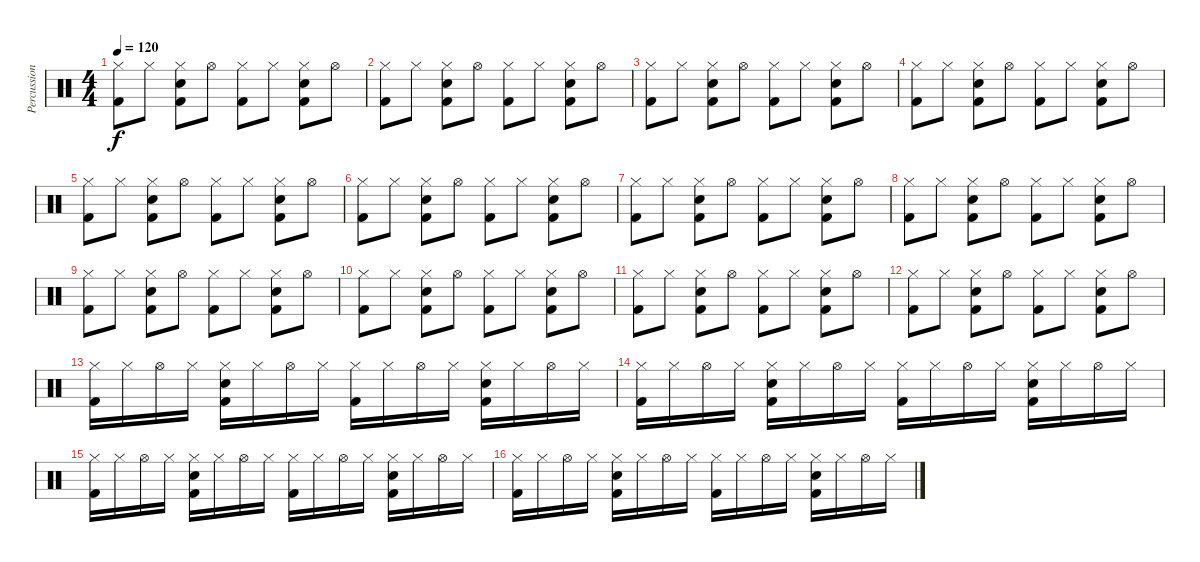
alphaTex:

\track ("Percussion" "Percussion") {instrument percussion}
\staff {score}
\articulation defaults
\ts (4 4)
\tempo 120
\clef neutral
\ks c
("Hi-Hat (closed)" "Kick (hit) 2").8{dy f} "Hi-Hat (closed)".8 ("Hi-Hat (closed)" "Snare (hit) 2" "Kick (hit) 2").8 "Hi-Hat (open)".8 ("Hi-Hat (closed)" "Kick (hit) 2").8 "Hi-Hat (closed)".8 ("Hi-Hat (closed)" "Snare (hit) 2" "Kick (hit) 2").8 "Hi-Hat (open)".8 |
("Hi-Hat (closed)" "Kick (hit) 2").8 "Hi-Hat (closed)".8 ("Hi-Hat (closed)" "Snare (hit) 2" "Kick (hit) 2").8 "Hi-Hat (open)".8 ("Hi-Hat (closed)" "Kick (hit) 2").8 "Hi-Hat (closed)".8 ("Hi-Hat (closed)" "Snare (hit) 2" "Kick (hit) 2").8 "Hi-Hat (open)".8 |
("Hi-Hat (closed)" "Kick (hit) 2").8 "Hi-Hat (closed)".8 ("Hi-Hat (closed)" "Snare (hit) 2" "Kick (hit) 2").8 "Hi-Hat (open)".8 ("Hi-Hat (closed)" "Kick (hit) 2").8 "Hi-Hat (closed)".8 ("Hi-Hat (closed)" "Snare (hit) 2" "Kick (hit) 2").8 "Hi-Hat (open)".8 |
("Hi-Hat (closed)" "Kick (hit) 2").8 "Hi-Hat (closed)".8 ("Hi-Hat (closed)" "Snare (hit) 2" "Kick (hit) 2").8 "Hi-Hat (open)".8 ("Hi-Hat (closed)" "Kick (hit) 2").8 "Hi-Hat (closed)".8 ("Hi-Hat (closed)" "Snare (hit) 2" "Kick (hit) 2").8 "Hi-Hat (open)".8 |
("Hi-Hat (closed)" "Kick (hit) 2").8 "Hi-Hat (closed)".8 ("Hi-Hat (closed)" "Snare (hit) 2" "Kick (hit) 2").8 "Hi-Hat (open)".8 ("Hi-Hat (closed)" "Kick (hit) 2").8 "Hi-Hat (closed)".8 ("Hi-Hat (closed)" "Snare (hit) 2" "Kick (hit) 2").8 "Hi-Hat (open)".8 |
("Hi-Hat (closed)" "Kick (hit) 2").8 "Hi-Hat (closed)".8 ("Hi-Hat (closed)" "Snare (hit) 2" "Kick (hit) 2").8 "Hi-Hat (open)".8 ("Hi-Hat (closed)" "Kick (hit) 2").8 "Hi-Hat (closed)".8 ("Hi-Hat (closed)" "Snare (hit) 2" "Kick (hit) 2").8 "Hi-Hat (open)".8 |
("Hi-Hat (closed)" "Kick (hit) 2").8 "Hi-Hat (closed)".8 ("Hi-Hat (closed)" "Snare (hit) 2" "Kick (hit) 2").8 "Hi-Hat (open)".8 ("Hi-Hat (closed)" "Kick (hit) 2").8 "Hi-Hat (closed)".8 ("Hi-Hat (closed)" "Snare (hit) 2" "Kick (hit) 2").8 "Hi-Hat (open)".8 |
("Hi-Hat (closed)" "Kick (hit) 2").8 "Hi-Hat (closed)".8 ("Hi-Hat (closed)" "Snare (hit) 2" "Kick (hit) 2").8 "Hi-Hat (open)".8 ("Hi-Hat (closed)" "Kick (hit) 2").8 "Hi-Hat (closed)".8 ("Hi-Hat (closed)" "Snare (hit) 2" "Kick (hit) 2").8 "Hi-Hat (open)".8 |
("Hi-Hat (closed)" "Kick (hit) 2").8 "Hi-Hat (closed)".8 ("Hi-Hat (closed)" "Snare (hit) 2" "Kick (hit) 2").8 "Hi-Hat (open)".8 ("Hi-Hat (closed)" "Kick (hit) 2").8 "Hi-Hat (closed)".8 ("Hi-Hat (closed)" "Snare (hit) 2" "Kick (hit) 2").8 "Hi-Hat (open)".8 |
("Hi-Hat (closed)" "Kick (hit) 2").8 "Hi-Hat (closed)".8 ("Hi-Hat (closed)" "Snare (hit) 2" "Kick (hit) 2").8 "Hi-Hat (open)".8 ("Hi-Hat (closed)" "Kick (hit) 2").8 "Hi-Hat (closed)".8 ("Hi-Hat (closed)" "Snare (hit) 2" "Kick (hit) 2").8 "Hi-Hat (open)".8 |
("Hi-Hat (closed)" "Kick (hit) 2").8 "Hi-Hat (closed)".8 ("Hi-Hat (closed)" "Snare (hit) 2" "Kick (hit) 2").8 "Hi-Hat (open)".8 ("Hi-Hat (closed)" "Kick (hit) 2").8 "Hi-Hat (closed)".8 ("Hi-Hat (closed)" "Snare (hit) 2" "Kick (hit) 2").8 "Hi-Hat (open)".8 |
("Hi-Hat (closed)" "Kick (hit) 2").8 "Hi-Hat (closed)".8 ("Hi-Hat (closed)" "Snare (hit) 2" "Kick (hit) 2").8 "Hi-Hat (open)".8 ("Hi-Hat (closed)" "Kick (hit) 2").8 "Hi-Hat (closed)".8 ("Hi-Hat (closed)" "Snare (hit) 2" "Kick (hit) 2").8 "Hi-Hat (open)".8 |
("Hi-Hat (closed)" "Kick (hit) 2").16 "Hi-Hat (closed)".16 "Hi-Hat (open)".16 "Hi-Hat (closed)".16 ("Hi-Hat (closed)" "Snare (hit) 2" "Kick (hit) 2").16 "Hi-Hat (closed)".16 "Hi-Hat (open)".16 "Hi-Hat (closed)".16 ("Hi-Hat (closed)" "Kick (hit) 2").16 "Hi-Hat (closed)".16 "Hi-Hat (open)".16 "Hi-Hat (closed)".16 ("Hi-Hat (closed)" "Snare (hit) 2" "Kick (hit) 2").16 "Hi-Hat (closed)".16 "Hi-Hat (open)".16 "Hi-Hat (closed)".16 |
("Hi-Hat (closed)" "Kick (hit) 2").16 "Hi-Hat (closed)".16 "Hi-Hat (open)".16 "Hi-Hat (closed)".16 ("Hi-Hat (closed)" "Snare (hit) 2" "Kick (hit) 2").16 "Hi-Hat (closed)".16 "Hi-Hat (open)".16 "Hi-Hat (closed)".16 ("Hi-Hat (closed)" "Kick (hit) 2").16 "Hi-Hat (closed)".16 "Hi-Hat (open)".16 "Hi-Hat (closed)".16 ("Hi-Hat (closed)" "Snare (hit) 2" "Kick (hit) 2").16 "Hi-Hat (closed)".16 "Hi-Hat (open)".16 "Hi-Hat (closed)".16 |
("Hi-Hat (closed)" "Kick (hit) 2").16 "Hi-Hat (closed)".16 "Hi-Hat (open)".16 "Hi-Hat (closed)".16 ("Hi-Hat (closed)" "Snare (hit) 2" "Kick (hit) 2").16 "Hi-Hat (closed)".16 "Hi-Hat (open)".16 "Hi-Hat (closed)".16 ("Hi-Hat (closed)" "Kick (hit) 2").16 "Hi-Hat (closed)".16 "Hi-Hat (open)".16 "Hi-Hat (closed)".16 ("Hi-Hat (closed)" "Snare (hit) 2" "Kick (hit) 2").16 "Hi-Hat (closed)".16 "Hi-Hat (open)".16 "Hi-Hat (closed)".16 |
("Hi-Hat (closed)" "Kick (hit) 2").16 "Hi-Hat (closed)".16 "Hi-Hat (open)".16 "Hi-Hat (closed)".16 ("Hi-Hat (closed)" "Snare (hit) 2" "Kick (hit) 2").16 "Hi-Hat (closed)".16 "Hi-Hat (open)".16 "Hi-Hat (closed)".16 ("Hi-Hat (closed)" "Kick (hit) 2").16 "Hi-Hat (closed)".16 "Hi-Hat (open)".16 "Hi-Hat (closed)".16 ("Hi-Hat (closed)" "Snare (hit) 2" "Kick (hit) 2").16 "Hi-Hat (closed)".16 "Hi-Hat (open)".16 "Hi-Hat (closed)".16
